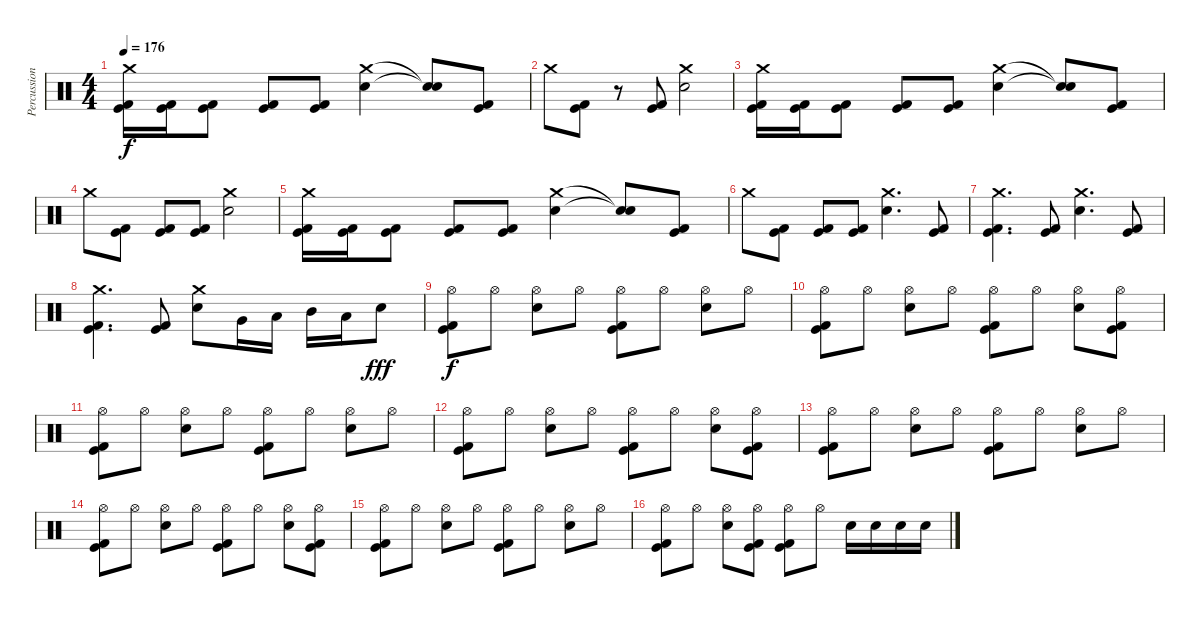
\track ("Percussions" "Percussion") {instrument percussion}
\staff {score}
\articulation defaults
\ts (4 4)
\tempo 176
\clef neutral
\ks c
("Crash medium (hit)" "Kick (hit)" "Kick (hit) 2").16{dy f} ("Kick (hit)" "Kick (hit) 2").16 ("Kick (hit)" "Kick (hit) 2").8 ("Kick (hit)" "Kick (hit) 2").8 ("Kick (hit)" "Kick (hit) 2").8 ("Crash medium (hit)" "Electric Snare (hit)").4 ("Snare (hit)"{t} "Snare (hit)"{t}).8 ("Kick (hit)" "Kick (hit) 2").8 |
"Crash medium (hit)".8 ("Kick (hit)" "Kick (hit) 2").8 r.8 ("Kick (hit)" "Kick (hit) 2").8 ("Crash medium (hit)" "Electric Snare (hit)").2 |
("Crash medium (hit)" "Kick (hit)" "Kick (hit) 2").16 ("Kick (hit)" "Kick (hit) 2").16 ("Kick (hit)" "Kick (hit) 2").8 ("Kick (hit)" "Kick (hit) 2").8 ("Kick (hit)" "Kick (hit) 2").8 ("Crash medium (hit)" "Electric Snare (hit)").4 ("Snare (hit)"{t} "Snare (hit)"{t}).8 ("Kick (hit)" "Kick (hit) 2").8 |
"Crash medium (hit)".8 ("Kick (hit)" "Kick (hit) 2").8 ("Kick (hit)" "Kick (hit) 2").8 ("Kick (hit)" "Kick (hit) 2").8 ("Crash medium (hit)" "Electric Snare (hit)").2 |
("Crash medium (hit)" "Kick (hit)" "Kick (hit) 2").16 ("Kick (hit)" "Kick (hit) 2").16 ("Kick (hit)" "Kick (hit) 2").8 ("Kick (hit)" "Kick (hit) 2").8 ("Kick (hit)" "Kick (hit) 2").8 ("Crash medium (hit)" "Electric Snare (hit)").4 ("Snare (hit)"{t} "Snare (hit)"{t}).8 ("Kick (hit)" "Kick (hit) 2").8 |
"Crash medium (hit)".8 ("Kick (hit)" "Kick (hit) 2").8 ("Kick (hit)" "Kick (hit) 2").8 ("Kick (hit)" "Kick (hit) 2").8 ("Crash medium (hit)" "Electric Snare (hit)").4{d} ("Kick (hit)" "Kick (hit) 2").8 |
("Crash medium (hit)" "Kick (hit)" "Kick (hit) 2").4{d} ("Kick (hit)" "Kick (hit) 2").8 ("Crash medium (hit)" "Electric Snare (hit)").4{d} ("Kick (hit)" "Kick (hit) 2").8 |
("Crash medium (hit)" "Kick (hit)" "Kick (hit) 2").4{d} ("Kick (hit)" "Kick (hit) 2").8 ("Crash medium (hit)" "Electric Snare (hit)").8 "Very Low Tom (hit)".16 "Low Tom (hit)".16 "Mid Tom (hit)".16 "Low Tom (hit)".16 "Electric Snare (hit)".8{dy fff} |
("Hi-Hat (open)" "Kick (hit)" "Kick (hit) 2").8{dy f} "Hi-Hat (open)".8 ("Hi-Hat (open)" "Electric Snare (hit)").8 "Hi-Hat (open)".8 ("Hi-Hat (open)" "Kick (hit)" "Kick (hit) 2").8 "Hi-Hat (open)".8 ("Hi-Hat (open)" "Electric Snare (hit)").8 "Hi-Hat (open)".8 |
("Hi-Hat (open)" "Kick (hit)" "Kick (hit) 2").8 "Hi-Hat (open)".8 ("Hi-Hat (open)" "Electric Snare (hit)").8 "Hi-Hat (open)".8 ("Hi-Hat (open)" "Kick (hit)" "Kick (hit) 2").8 "Hi-Hat (open)".8 ("Hi-Hat (open)" "Electric Snare (hit)").8 ("Hi-Hat (open)" "Kick (hit)" "Kick (hit) 2").8 |
("Hi-Hat (open)" "Kick (hit)" "Kick (hit) 2").8 "Hi-Hat (open)".8 ("Hi-Hat (open)" "Electric Snare (hit)").8 "Hi-Hat (open)".8 ("Hi-Hat (open)" "Kick (hit)" "Kick (hit) 2").8 "Hi-Hat (open)".8 ("Hi-Hat (open)" "Electric Snare (hit)").8 "Hi-Hat (open)".8 |
("Hi-Hat (open)" "Kick (hit)" "Kick (hit) 2").8 "Hi-Hat (open)".8 ("Hi-Hat (open)" "Electric Snare (hit)").8 "Hi-Hat (open)".8 ("Hi-Hat (open)" "Kick (hit)" "Kick (hit) 2").8 "Hi-Hat (open)".8 ("Hi-Hat (open)" "Electric Snare (hit)").8 ("Hi-Hat (open)" "Kick (hit)" "Kick (hit) 2").8 |
("Hi-Hat (open)" "Kick (hit)" "Kick (hit) 2").8 "Hi-Hat (open)".8 ("Hi-Hat (open)" "Electric Snare (hit)").8 "Hi-Hat (open)".8 ("Hi-Hat (open)" "Kick (hit)" "Kick (hit) 2").8 "Hi-Hat (open)".8 ("Hi-Hat (open)" "Electric Snare (hit)").8 "Hi-Hat (open)".8 |
("Hi-Hat (open)" "Kick (hit)" "Kick (hit) 2").8 "Hi-Hat (open)".8 ("Hi-Hat (open)" "Electric Snare (hit)").8 "Hi-Hat (open)".8 ("Hi-Hat (open)" "Kick (hit)" "Kick (hit) 2").8 "Hi-Hat (open)".8 ("Hi-Hat (open)" "Electric Snare (hit)").8 ("Hi-Hat (open)" "Kick (hit)" "Kick (hit) 2").8 |
("Hi-Hat (open)" "Kick (hit)" "Kick (hit) 2").8 "Hi-Hat (open)".8 ("Hi-Hat (open)" "Electric Snare (hit)").8 "Hi-Hat (open)".8 ("Hi-Hat (open)" "Kick (hit)" "Kick (hit) 2").8 "Hi-Hat (open)".8 ("Hi-Hat (open)" "Electric Snare (hit)").8 "Hi-Hat (open)".8 |
("Hi-Hat (open)" "Kick (hit)" "Kick (hit) 2").8 "Hi-Hat (open)".8 ("Hi-Hat (open)" "Electric Snare (hit)").8 ("Hi-Hat (open)" "Kick (hit)" "Kick (hit) 2").8 ("Hi-Hat (open)" "Kick (hit)" "Kick (hit) 2").8 "Hi-Hat (open)".8 "Electric Snare (hit)".16 "Electric Snare (hit)".16 "Electric Snare (hit)".16 "Electric Snare (hit)".16
